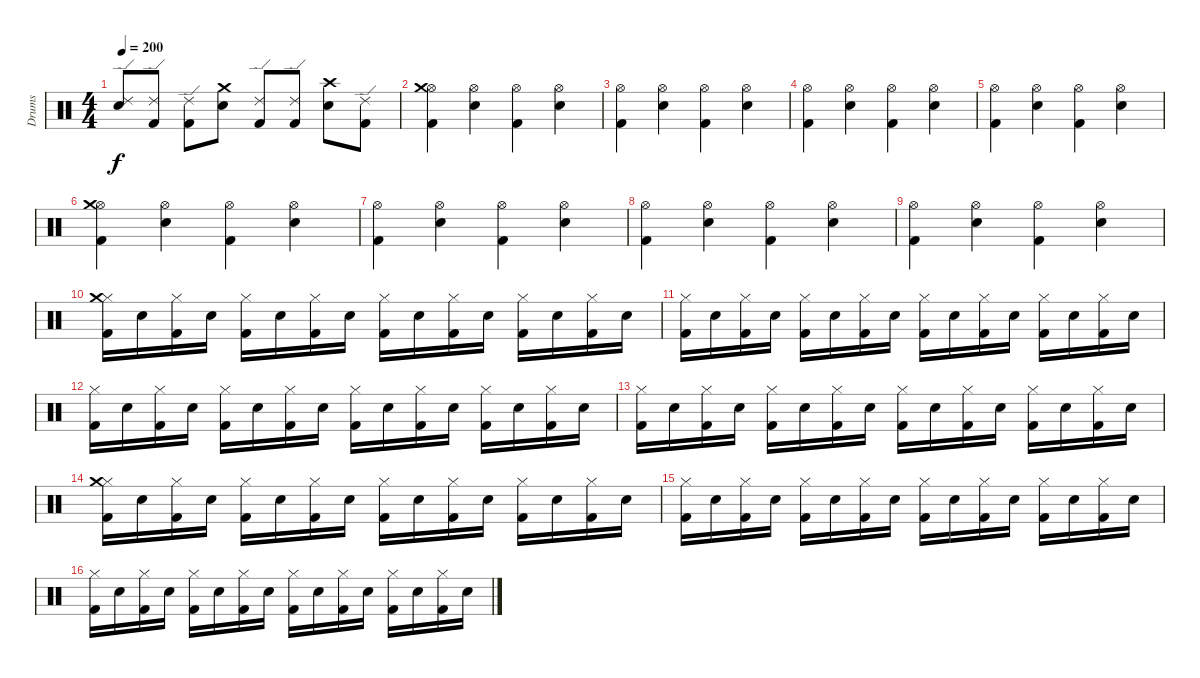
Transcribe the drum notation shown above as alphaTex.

\track ("Drums" "Drums") {instrument percussion}
\staff {score}
\articulation defaults
\ts (4 4)
\tempo 200
\clef neutral
\ks c
("Snare (hit) 2" "Ride (edge) 2").8{dy f} ("Kick (hit) 2" "Ride (edge) 2").8 ("Kick (hit) 2" "Ride (edge) 2").8 ("Snare (hit) 2" "Crash medium (hit)").8 ("Kick (hit) 2" "Ride (edge) 2").8 ("Kick (hit) 2" "Ride (edge) 2").8 ("Snare (hit) 2" "Crash high (hit)").8 ("Kick (hit) 2" "Ride (edge) 2").8 |
("Kick (hit) 2" "Hi-Hat (open)" "Crash medium (hit)").4 ("Snare (hit) 2" "Hi-Hat (open)").4 ("Kick (hit) 2" "Hi-Hat (open)").4 ("Snare (hit) 2" "Hi-Hat (open)").4 |
("Kick (hit) 2" "Hi-Hat (open)").4 ("Snare (hit) 2" "Hi-Hat (open)").4 ("Kick (hit) 2" "Hi-Hat (open)").4 ("Snare (hit) 2" "Hi-Hat (open)").4 |
("Kick (hit) 2" "Hi-Hat (open)").4 ("Snare (hit) 2" "Hi-Hat (open)").4 ("Kick (hit) 2" "Hi-Hat (open)").4 ("Snare (hit) 2" "Hi-Hat (open)").4 |
("Kick (hit) 2" "Hi-Hat (open)").4 ("Snare (hit) 2" "Hi-Hat (open)").4 ("Kick (hit) 2" "Hi-Hat (open)").4 ("Snare (hit) 2" "Hi-Hat (open)").4 |
("Kick (hit) 2" "Hi-Hat (open)" "Crash medium (hit)").4 ("Snare (hit) 2" "Hi-Hat (open)").4 ("Kick (hit) 2" "Hi-Hat (open)").4 ("Snare (hit) 2" "Hi-Hat (open)").4 |
("Kick (hit) 2" "Hi-Hat (open)").4 ("Snare (hit) 2" "Hi-Hat (open)").4 ("Kick (hit) 2" "Hi-Hat (open)").4 ("Snare (hit) 2" "Hi-Hat (open)").4 |
("Kick (hit) 2" "Hi-Hat (open)").4 ("Snare (hit) 2" "Hi-Hat (open)").4 ("Kick (hit) 2" "Hi-Hat (open)").4 ("Snare (hit) 2" "Hi-Hat (open)").4 |
("Kick (hit) 2" "Hi-Hat (open)").4 ("Snare (hit) 2" "Hi-Hat (open)").4 ("Kick (hit) 2" "Hi-Hat (open)").4 ("Snare (hit) 2" "Hi-Hat (open)").4 |
("Kick (hit) 2" "Hi-Hat (closed)" "Crash medium (hit)").16 "Snare (hit) 2".16 ("Kick (hit) 2" "Hi-Hat (closed)").16 "Snare (hit) 2".16 ("Kick (hit) 2" "Hi-Hat (closed)").16 "Snare (hit) 2".16 ("Kick (hit) 2" "Hi-Hat (closed)").16 "Snare (hit) 2".16 ("Kick (hit) 2" "Hi-Hat (closed)").16 "Snare (hit) 2".16 ("Kick (hit) 2" "Hi-Hat (closed)").16 "Snare (hit) 2".16 ("Kick (hit) 2" "Hi-Hat (closed)").16 "Snare (hit) 2".16 ("Kick (hit) 2" "Hi-Hat (closed)").16 "Snare (hit) 2".16 |
("Kick (hit) 2" "Hi-Hat (closed)").16 "Snare (hit) 2".16 ("Kick (hit) 2" "Hi-Hat (closed)").16 "Snare (hit) 2".16 ("Kick (hit) 2" "Hi-Hat (closed)").16 "Snare (hit) 2".16 ("Kick (hit) 2" "Hi-Hat (closed)").16 "Snare (hit) 2".16 ("Kick (hit) 2" "Hi-Hat (closed)").16 "Snare (hit) 2".16 ("Kick (hit) 2" "Hi-Hat (closed)").16 "Snare (hit) 2".16 ("Kick (hit) 2" "Hi-Hat (closed)").16 "Snare (hit) 2".16 ("Kick (hit) 2" "Hi-Hat (closed)").16 "Snare (hit) 2".16 |
("Kick (hit) 2" "Hi-Hat (closed)").16 "Snare (hit) 2".16 ("Kick (hit) 2" "Hi-Hat (closed)").16 "Snare (hit) 2".16 ("Kick (hit) 2" "Hi-Hat (closed)").16 "Snare (hit) 2".16 ("Kick (hit) 2" "Hi-Hat (closed)").16 "Snare (hit) 2".16 ("Kick (hit) 2" "Hi-Hat (closed)").16 "Snare (hit) 2".16 ("Kick (hit) 2" "Hi-Hat (closed)").16 "Snare (hit) 2".16 ("Kick (hit) 2" "Hi-Hat (closed)").16 "Snare (hit) 2".16 ("Kick (hit) 2" "Hi-Hat (closed)").16 "Snare (hit) 2".16 |
("Kick (hit) 2" "Hi-Hat (closed)").16 "Snare (hit) 2".16 ("Kick (hit) 2" "Hi-Hat (closed)").16 "Snare (hit) 2".16 ("Kick (hit) 2" "Hi-Hat (closed)").16 "Snare (hit) 2".16 ("Kick (hit) 2" "Hi-Hat (closed)").16 "Snare (hit) 2".16 ("Kick (hit) 2" "Hi-Hat (closed)").16 "Snare (hit) 2".16 ("Kick (hit) 2" "Hi-Hat (closed)").16 "Snare (hit) 2".16 ("Kick (hit) 2" "Hi-Hat (closed)").16 "Snare (hit) 2".16 ("Kick (hit) 2" "Hi-Hat (closed)").16 "Snare (hit) 2".16 |
("Kick (hit) 2" "Hi-Hat (closed)" "Crash medium (hit)").16 "Snare (hit) 2".16 ("Kick (hit) 2" "Hi-Hat (closed)").16 "Snare (hit) 2".16 ("Kick (hit) 2" "Hi-Hat (closed)").16 "Snare (hit) 2".16 ("Kick (hit) 2" "Hi-Hat (closed)").16 "Snare (hit) 2".16 ("Kick (hit) 2" "Hi-Hat (closed)").16 "Snare (hit) 2".16 ("Kick (hit) 2" "Hi-Hat (closed)").16 "Snare (hit) 2".16 ("Kick (hit) 2" "Hi-Hat (closed)").16 "Snare (hit) 2".16 ("Kick (hit) 2" "Hi-Hat (closed)").16 "Snare (hit) 2".16 |
("Kick (hit) 2" "Hi-Hat (closed)").16 "Snare (hit) 2".16 ("Kick (hit) 2" "Hi-Hat (closed)").16 "Snare (hit) 2".16 ("Kick (hit) 2" "Hi-Hat (closed)").16 "Snare (hit) 2".16 ("Kick (hit) 2" "Hi-Hat (closed)").16 "Snare (hit) 2".16 ("Kick (hit) 2" "Hi-Hat (closed)").16 "Snare (hit) 2".16 ("Kick (hit) 2" "Hi-Hat (closed)").16 "Snare (hit) 2".16 ("Kick (hit) 2" "Hi-Hat (closed)").16 "Snare (hit) 2".16 ("Kick (hit) 2" "Hi-Hat (closed)").16 "Snare (hit) 2".16 |
("Kick (hit) 2" "Hi-Hat (closed)").16 "Snare (hit) 2".16 ("Kick (hit) 2" "Hi-Hat (closed)").16 "Snare (hit) 2".16 ("Kick (hit) 2" "Hi-Hat (closed)").16 "Snare (hit) 2".16 ("Kick (hit) 2" "Hi-Hat (closed)").16 "Snare (hit) 2".16 ("Kick (hit) 2" "Hi-Hat (closed)").16 "Snare (hit) 2".16 ("Kick (hit) 2" "Hi-Hat (closed)").16 "Snare (hit) 2".16 ("Kick (hit) 2" "Hi-Hat (closed)").16 "Snare (hit) 2".16 ("Kick (hit) 2" "Hi-Hat (closed)").16 "Snare (hit) 2".16
